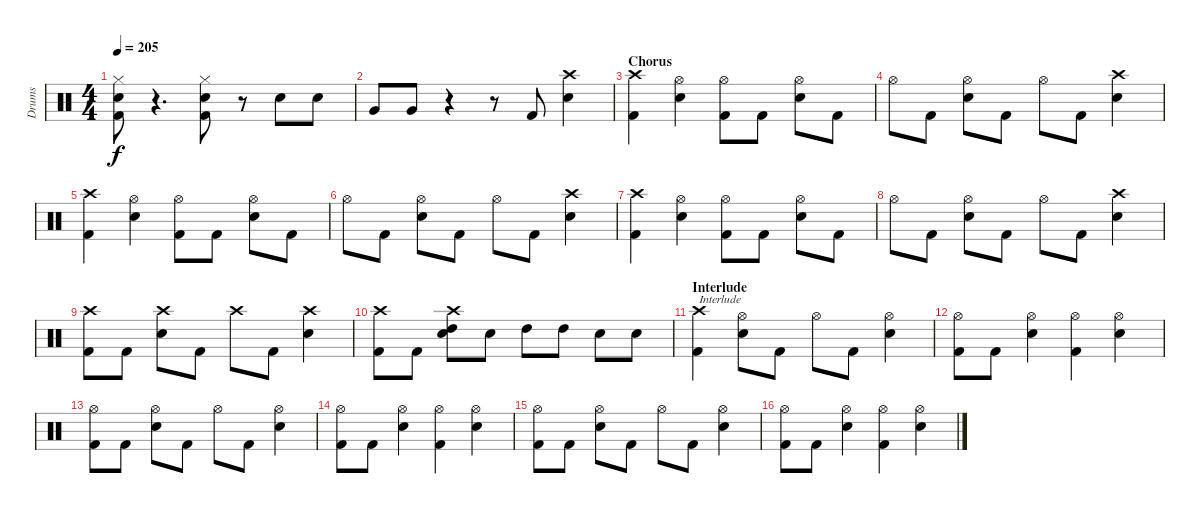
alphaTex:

\track ("Drums" "Drums") {instrument percussion}
\staff {score}
\articulation defaults
\ts (4 4)
\tempo 205
\clef neutral
\ks c
("Hi-Hat (closed)" "Electric Snare (hit)" "Kick (hit) 2").8{dy f} r.4{d} ("Hi-Hat (closed)" "Electric Snare (hit)" "Kick (hit) 2").8 r.8 "Electric Snare (hit)".8 "Electric Snare (hit)".8 |
"Very Low Tom (hit)".8 "Very Low Tom (hit)".8 r.4 r.8 "Kick (hit) 2".8 ("Crash high (hit)" "Electric Snare (hit)").4 |
\section ("" "Chorus")
("Crash high (hit)" "Kick (hit) 2").4 ("Hi-Hat (open)" "Electric Snare (hit)").4 ("Hi-Hat (open)" "Kick (hit) 2").8 "Kick (hit) 2".8 ("Hi-Hat (open)" "Electric Snare (hit)").8 "Kick (hit) 2".8 |
"Hi-Hat (open)".8 "Kick (hit) 2".8 ("Hi-Hat (open)" "Electric Snare (hit)").8 "Kick (hit) 2".8 "Hi-Hat (open)".8 "Kick (hit) 2".8 ("Crash high (hit)" "Electric Snare (hit)").4 |
("Crash high (hit)" "Kick (hit) 2").4 ("Hi-Hat (open)" "Electric Snare (hit)").4 ("Hi-Hat (open)" "Kick (hit) 2").8 "Kick (hit) 2".8 ("Hi-Hat (open)" "Electric Snare (hit)").8 "Kick (hit) 2".8 |
"Hi-Hat (open)".8 "Kick (hit) 2".8 ("Hi-Hat (open)" "Electric Snare (hit)").8 "Kick (hit) 2".8 "Hi-Hat (open)".8 "Kick (hit) 2".8 ("Crash high (hit)" "Electric Snare (hit)").4 |
("Crash high (hit)" "Kick (hit) 2").4 ("Hi-Hat (open)" "Electric Snare (hit)").4 ("Hi-Hat (open)" "Kick (hit) 2").8 "Kick (hit) 2".8 ("Hi-Hat (open)" "Electric Snare (hit)").8 "Kick (hit) 2".8 |
"Hi-Hat (open)".8 "Kick (hit) 2".8 ("Hi-Hat (open)" "Electric Snare (hit)").8 "Kick (hit) 2".8 "Hi-Hat (open)".8 "Kick (hit) 2".8 ("Crash high (hit)" "Electric Snare (hit)").4 |
("Crash high (hit)" "Kick (hit) 2").8 "Kick (hit) 2".8 ("Crash high (hit)" "Electric Snare (hit)").8 "Kick (hit) 2".8 "Crash high (hit)".8 "Kick (hit) 2".8 ("Crash high (hit)" "Electric Snare (hit)").4 |
("Crash high (hit)" "Kick (hit) 2").8 "Kick (hit) 2".8 ("Crash high (hit)" "Electric Snare (hit)" "High Tom (hit)").8 "Electric Snare (hit)".8 "High Tom (hit)".8 "High Tom (hit)".8 "Electric Snare (hit)".8 "Electric Snare (hit)".8 |
\section ("" "Interlude")
("Crash high (hit)" "Kick (hit) 2").4{txt "Interlude"} ("Hi-Hat (open)" "Electric Snare (hit)").8 "Kick (hit) 2".8 "Hi-Hat (open)".8 "Kick (hit) 2".8 ("Hi-Hat (open)" "Electric Snare (hit)").4 |
("Hi-Hat (open)" "Kick (hit) 2").8 "Kick (hit) 2".8 ("Hi-Hat (open)" "Electric Snare (hit)").4 ("Hi-Hat (open)" "Kick (hit) 2").4 ("Hi-Hat (open)" "Electric Snare (hit)").4 |
("Hi-Hat (open)" "Kick (hit) 2").8 "Kick (hit) 2".8 ("Hi-Hat (open)" "Electric Snare (hit)").8 "Kick (hit) 2".8 "Hi-Hat (open)".8 "Kick (hit) 2".8 ("Hi-Hat (open)" "Electric Snare (hit)").4 |
("Hi-Hat (open)" "Kick (hit) 2").8 "Kick (hit) 2".8 ("Hi-Hat (open)" "Electric Snare (hit)").4 ("Hi-Hat (open)" "Kick (hit) 2").4 ("Hi-Hat (open)" "Electric Snare (hit)").4 |
("Hi-Hat (open)" "Kick (hit) 2").8 "Kick (hit) 2".8 ("Hi-Hat (open)" "Electric Snare (hit)").8 "Kick (hit) 2".8 "Hi-Hat (open)".8 "Kick (hit) 2".8 ("Hi-Hat (open)" "Electric Snare (hit)").4 |
("Hi-Hat (open)" "Kick (hit) 2").8 "Kick (hit) 2".8 ("Hi-Hat (open)" "Electric Snare (hit)").4 ("Hi-Hat (open)" "Kick (hit) 2").4 ("Hi-Hat (open)" "Electric Snare (hit)").4
